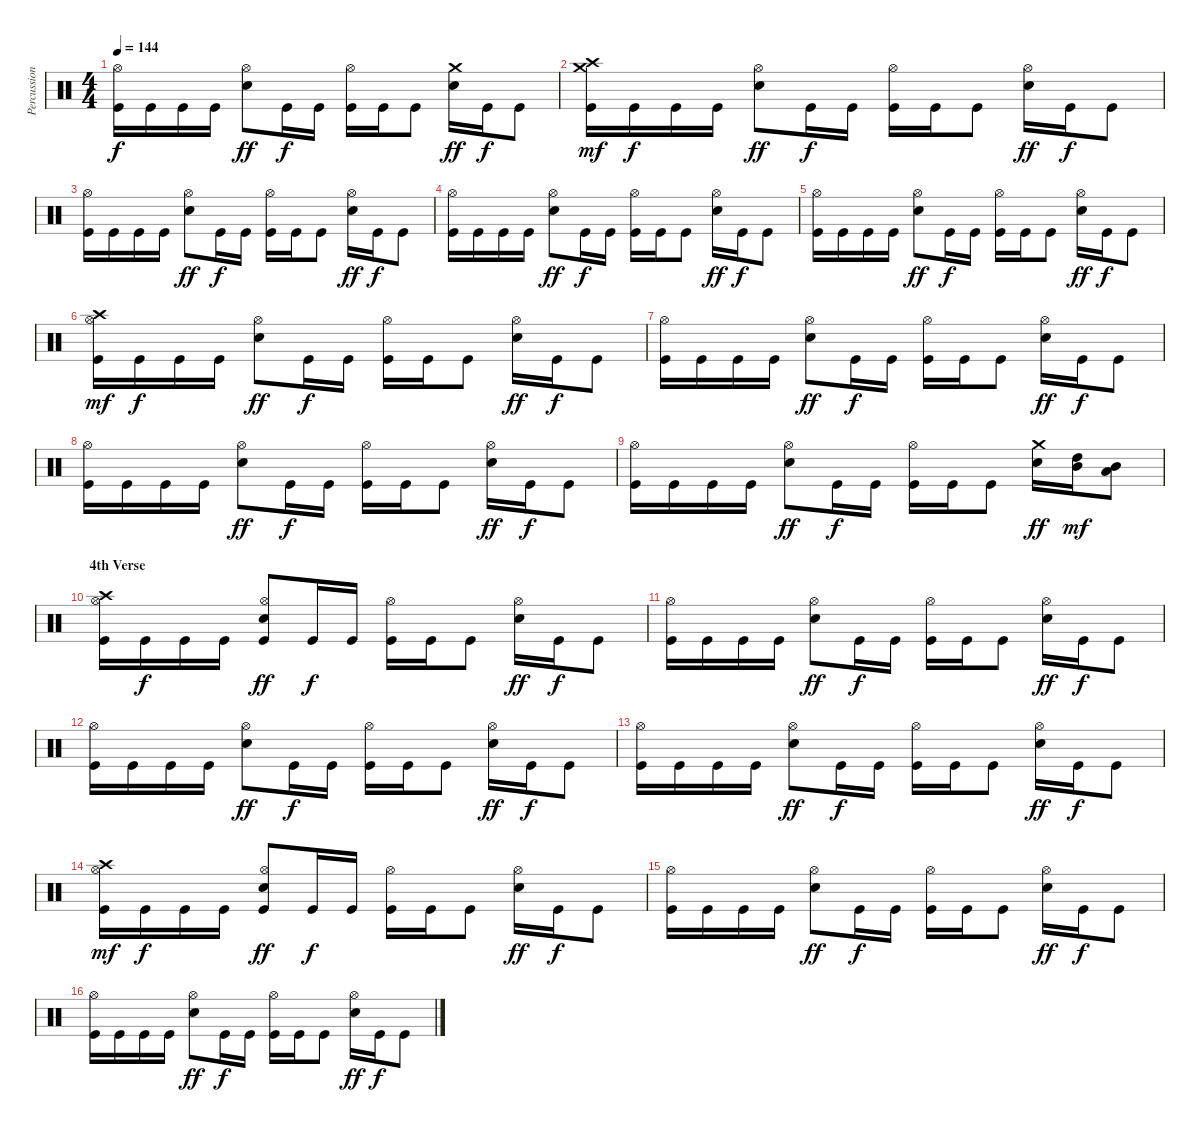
\track ("Percussions" "Percussion") {instrument percussion}
\staff {score}
\articulation defaults
\ts (4 4)
\tempo 144
\clef neutral
\ks c
("Kick (hit)" "Hi-Hat (open)").16{dy f} "Kick (hit)".16 "Kick (hit)".16 "Kick (hit)".16 ("Electric Snare (hit)" "Hi-Hat (open)").8{dy ff} "Kick (hit)".16{dy f} "Kick (hit)".16 ("Kick (hit)" "Hi-Hat (open)").16 "Kick (hit)".16 "Kick (hit)".8 ("Electric Snare (hit)" "Crash medium (hit)").16{dy ff} "Kick (hit)".16{dy f} "Kick (hit)".8 |
("Kick (hit)" "Crash medium (hit)" "Crash high (hit)").16{dy mf} "Kick (hit)".16{dy f} "Kick (hit)".16 "Kick (hit)".16 ("Electric Snare (hit)" "Hi-Hat (open)").8{dy ff} "Kick (hit)".16{dy f} "Kick (hit)".16 ("Kick (hit)" "Hi-Hat (open)").16 "Kick (hit)".16 "Kick (hit)".8 ("Electric Snare (hit)" "Hi-Hat (open)").16{dy ff} "Kick (hit)".16{dy f} "Kick (hit)".8 |
("Kick (hit)" "Hi-Hat (open)").16 "Kick (hit)".16 "Kick (hit)".16 "Kick (hit)".16 ("Electric Snare (hit)" "Hi-Hat (open)").8{dy ff} "Kick (hit)".16{dy f} "Kick (hit)".16 ("Kick (hit)" "Hi-Hat (open)").16 "Kick (hit)".16 "Kick (hit)".8 ("Electric Snare (hit)" "Hi-Hat (open)").16{dy ff} "Kick (hit)".16{dy f} "Kick (hit)".8 |
("Kick (hit)" "Hi-Hat (open)").16 "Kick (hit)".16 "Kick (hit)".16 "Kick (hit)".16 ("Electric Snare (hit)" "Hi-Hat (open)").8{dy ff} "Kick (hit)".16{dy f} "Kick (hit)".16 ("Kick (hit)" "Hi-Hat (open)").16 "Kick (hit)".16 "Kick (hit)".8 ("Electric Snare (hit)" "Hi-Hat (open)").16{dy ff} "Kick (hit)".16{dy f} "Kick (hit)".8 |
("Kick (hit)" "Hi-Hat (open)").16 "Kick (hit)".16 "Kick (hit)".16 "Kick (hit)".16 ("Electric Snare (hit)" "Hi-Hat (open)").8{dy ff} "Kick (hit)".16{dy f} "Kick (hit)".16 ("Kick (hit)" "Hi-Hat (open)").16 "Kick (hit)".16 "Kick (hit)".8 ("Electric Snare (hit)" "Hi-Hat (open)").16{dy ff} "Kick (hit)".16{dy f} "Kick (hit)".8 |
("Kick (hit)" "Hi-Hat (open)" "Crash high (hit)").16{dy mf} "Kick (hit)".16{dy f} "Kick (hit)".16 "Kick (hit)".16 ("Electric Snare (hit)" "Hi-Hat (open)").8{dy ff} "Kick (hit)".16{dy f} "Kick (hit)".16 ("Kick (hit)" "Hi-Hat (open)").16 "Kick (hit)".16 "Kick (hit)".8 ("Electric Snare (hit)" "Hi-Hat (open)").16{dy ff} "Kick (hit)".16{dy f} "Kick (hit)".8 |
("Kick (hit)" "Hi-Hat (open)").16 "Kick (hit)".16 "Kick (hit)".16 "Kick (hit)".16 ("Electric Snare (hit)" "Hi-Hat (open)").8{dy ff} "Kick (hit)".16{dy f} "Kick (hit)".16 ("Kick (hit)" "Hi-Hat (open)").16 "Kick (hit)".16 "Kick (hit)".8 ("Electric Snare (hit)" "Hi-Hat (open)").16{dy ff} "Kick (hit)".16{dy f} "Kick (hit)".8 |
("Kick (hit)" "Hi-Hat (open)").16 "Kick (hit)".16 "Kick (hit)".16 "Kick (hit)".16 ("Electric Snare (hit)" "Hi-Hat (open)").8{dy ff} "Kick (hit)".16{dy f} "Kick (hit)".16 ("Kick (hit)" "Hi-Hat (open)").16 "Kick (hit)".16 "Kick (hit)".8 ("Electric Snare (hit)" "Hi-Hat (open)").16{dy ff} "Kick (hit)".16{dy f} "Kick (hit)".8 |
("Kick (hit)" "Hi-Hat (open)").16 "Kick (hit)".16 "Kick (hit)".16 "Kick (hit)".16 ("Electric Snare (hit)" "Hi-Hat (open)").8{dy ff} "Kick (hit)".16{dy f} "Kick (hit)".16 ("Kick (hit)" "Hi-Hat (open)").16 "Kick (hit)".16 "Kick (hit)".8 ("Electric Snare (hit)" "Crash medium (hit)").16{dy ff} ("Mid Tom (hit)" "High Tom (hit)").16{dy mf} ("Low Tom (hit)" "Mid Tom (hit)").8 |
\section ("" "4th Verse")
("Kick (hit)" "Hi-Hat (open)" "Crash high (hit)").16 "Kick (hit)".16{dy f} "Kick (hit)".16 "Kick (hit)".16 ("Kick (hit)" "Electric Snare (hit)" "Hi-Hat (open)").8{dy ff} "Kick (hit)".16{dy f} "Kick (hit)".16 ("Kick (hit)" "Hi-Hat (open)").16 "Kick (hit)".16 "Kick (hit)".8 ("Electric Snare (hit)" "Hi-Hat (open)").16{dy ff} "Kick (hit)".16{dy f} "Kick (hit)".8 |
("Kick (hit)" "Hi-Hat (open)").16 "Kick (hit)".16 "Kick (hit)".16 "Kick (hit)".16 ("Electric Snare (hit)" "Hi-Hat (open)").8{dy ff} "Kick (hit)".16{dy f} "Kick (hit)".16 ("Kick (hit)" "Hi-Hat (open)").16 "Kick (hit)".16 "Kick (hit)".8 ("Electric Snare (hit)" "Hi-Hat (open)").16{dy ff} "Kick (hit)".16{dy f} "Kick (hit)".8 |
("Kick (hit)" "Hi-Hat (open)").16 "Kick (hit)".16 "Kick (hit)".16 "Kick (hit)".16 ("Electric Snare (hit)" "Hi-Hat (open)").8{dy ff} "Kick (hit)".16{dy f} "Kick (hit)".16 ("Kick (hit)" "Hi-Hat (open)").16 "Kick (hit)".16 "Kick (hit)".8 ("Electric Snare (hit)" "Hi-Hat (open)").16{dy ff} "Kick (hit)".16{dy f} "Kick (hit)".8 |
("Kick (hit)" "Hi-Hat (open)").16 "Kick (hit)".16 "Kick (hit)".16 "Kick (hit)".16 ("Electric Snare (hit)" "Hi-Hat (open)").8{dy ff} "Kick (hit)".16{dy f} "Kick (hit)".16 ("Kick (hit)" "Hi-Hat (open)").16 "Kick (hit)".16 "Kick (hit)".8 ("Electric Snare (hit)" "Hi-Hat (open)").16{dy ff} "Kick (hit)".16{dy f} "Kick (hit)".8 |
("Kick (hit)" "Hi-Hat (open)" "Crash high (hit)").16{dy mf} "Kick (hit)".16{dy f} "Kick (hit)".16 "Kick (hit)".16 ("Kick (hit)" "Electric Snare (hit)" "Hi-Hat (open)").8{dy ff} "Kick (hit)".16{dy f} "Kick (hit)".16 ("Kick (hit)" "Hi-Hat (open)").16 "Kick (hit)".16 "Kick (hit)".8 ("Electric Snare (hit)" "Hi-Hat (open)").16{dy ff} "Kick (hit)".16{dy f} "Kick (hit)".8 |
("Kick (hit)" "Hi-Hat (open)").16 "Kick (hit)".16 "Kick (hit)".16 "Kick (hit)".16 ("Electric Snare (hit)" "Hi-Hat (open)").8{dy ff} "Kick (hit)".16{dy f} "Kick (hit)".16 ("Kick (hit)" "Hi-Hat (open)").16 "Kick (hit)".16 "Kick (hit)".8 ("Electric Snare (hit)" "Hi-Hat (open)").16{dy ff} "Kick (hit)".16{dy f} "Kick (hit)".8 |
("Kick (hit)" "Hi-Hat (open)").16 "Kick (hit)".16 "Kick (hit)".16 "Kick (hit)".16 ("Electric Snare (hit)" "Hi-Hat (open)").8{dy ff} "Kick (hit)".16{dy f} "Kick (hit)".16 ("Kick (hit)" "Hi-Hat (open)").16 "Kick (hit)".16 "Kick (hit)".8 ("Electric Snare (hit)" "Hi-Hat (open)").16{dy ff} "Kick (hit)".16{dy f} "Kick (hit)".8
